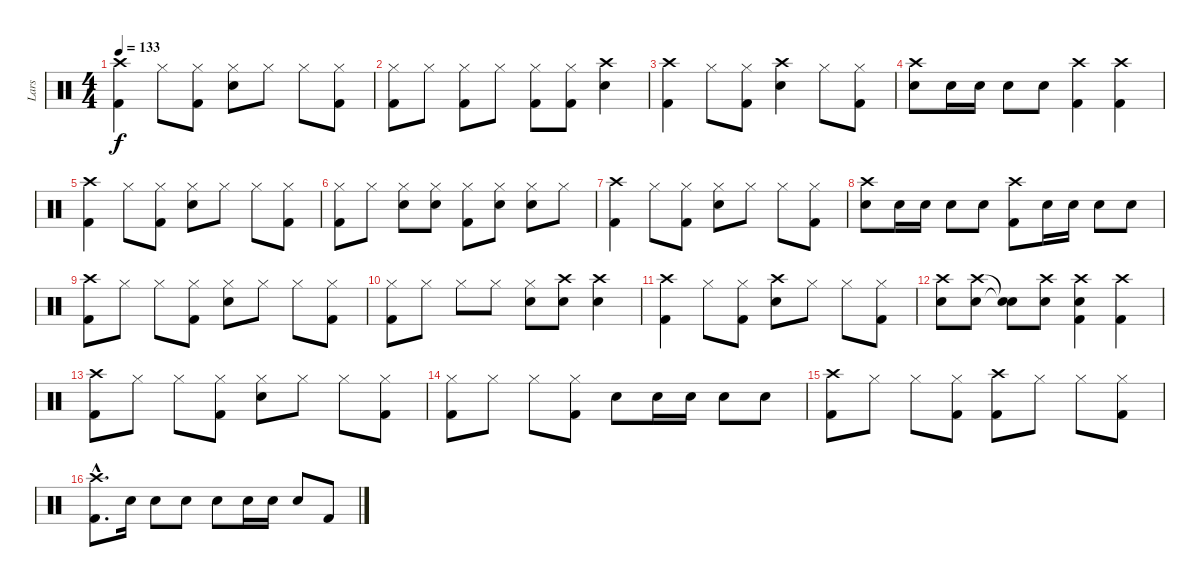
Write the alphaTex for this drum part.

\track ("Lars" "Lars") {instrument percussion}
\staff {score}
\articulation defaults
\ts (4 4)
\tempo 133
\clef neutral
\ks c
("Crash high (hit)" "Kick (hit) 2").4{dy f} "Hi-Hat (closed)".8 ("Kick (hit) 2" "Hi-Hat (closed)").8 ("Hi-Hat (closed)" "Electric Snare (hit)").8 "Hi-Hat (closed)".8 "Hi-Hat (closed)".8 ("Kick (hit) 2" "Hi-Hat (closed)").8 |
("Hi-Hat (closed)" "Kick (hit) 2").8 "Hi-Hat (closed)".8 ("Hi-Hat (closed)" "Kick (hit) 2").8 "Hi-Hat (closed)".8 ("Hi-Hat (closed)" "Kick (hit) 2").8 ("Hi-Hat (closed)" "Kick (hit) 2").8 ("Crash high (hit)" "Snare (hit) 2").4 |
("Crash high (hit)" "Kick (hit) 2").4 "Hi-Hat (closed)".8 ("Hi-Hat (closed)" "Kick (hit) 2").8 ("Crash high (hit)" "Electric Snare (hit)").4 "Hi-Hat (closed)".8 ("Hi-Hat (closed)" "Kick (hit) 2").8 |
("Crash high (hit)" "Electric Snare (hit)").8 "Electric Snare (hit)".16 "Electric Snare (hit)".16 "Electric Snare (hit)".8 "Electric Snare (hit)".8 ("Crash high (hit)" "Kick (hit) 2").4 ("Crash high (hit)" "Kick (hit) 2").4 |
("Crash high (hit)" "Kick (hit) 2").4 "Hi-Hat (closed)".8 ("Hi-Hat (closed)" "Kick (hit) 2").8 ("Hi-Hat (closed)" "Electric Snare (hit)").8 "Hi-Hat (closed)".8 "Hi-Hat (closed)".8 ("Hi-Hat (closed)" "Kick (hit) 2").8 |
("Hi-Hat (closed)" "Kick (hit) 2").8 "Hi-Hat (closed)".8 ("Hi-Hat (closed)" "Electric Snare (hit)").8 ("Hi-Hat (closed)" "Electric Snare (hit)").8 ("Hi-Hat (closed)" "Kick (hit) 2").8 ("Hi-Hat (closed)" "Electric Snare (hit)").8 ("Hi-Hat (closed)" "Electric Snare (hit)").8 "Hi-Hat (closed)".8 |
("Crash high (hit)" "Kick (hit) 2").4 "Hi-Hat (closed)".8 ("Kick (hit) 2" "Hi-Hat (closed)").8 ("Hi-Hat (closed)" "Electric Snare (hit)").8 "Hi-Hat (closed)".8 "Hi-Hat (closed)".8 ("Kick (hit) 2" "Hi-Hat (closed)").8 |
("Crash high (hit)" "Electric Snare (hit)").8 "Electric Snare (hit)".16 "Electric Snare (hit)".16 "Electric Snare (hit)".8 "Electric Snare (hit)".8 ("Crash high (hit)" "Kick (hit) 2").8 "Electric Snare (hit)".16 "Electric Snare (hit)".16 "Electric Snare (hit)".8 "Electric Snare (hit)".8 |
("Crash high (hit)" "Kick (hit) 2").8 "Hi-Hat (closed)".8 "Hi-Hat (closed)".8 ("Hi-Hat (closed)" "Kick (hit) 2").8 ("Hi-Hat (closed)" "Electric Snare (hit)").8 "Hi-Hat (closed)".8 "Hi-Hat (closed)".8 ("Hi-Hat (closed)" "Kick (hit) 2").8 |
("Hi-Hat (closed)" "Kick (hit) 2").8 "Hi-Hat (closed)".8 "Hi-Hat (closed)".8 "Hi-Hat (closed)".8 ("Hi-Hat (closed)" "Electric Snare (hit)").8 ("Crash high (hit)" "Electric Snare (hit)").8 ("Crash high (hit)" "Electric Snare (hit)").4 |
("Crash high (hit)" "Kick (hit) 2").4 "Hi-Hat (closed)".8 ("Hi-Hat (closed)" "Kick (hit) 2").8 ("Crash high (hit)" "Electric Snare (hit)").8 "Hi-Hat (closed)".8 "Hi-Hat (closed)".8 ("Hi-Hat (closed)" "Kick (hit) 2").8 |
("Crash high (hit)" "Electric Snare (hit)").8 ("Crash high (hit)" "Electric Snare (hit)").8 ("Snare (hit)"{t} "Snare (hit)"{t}).8 ("Crash high (hit)" "Electric Snare (hit)").8 ("Crash high (hit)" "Electric Snare (hit)" "Kick (hit) 2").4 ("Crash high (hit)" "Kick (hit) 2").4 |
("Crash high (hit)" "Kick (hit) 2").8 "Hi-Hat (closed)".8 "Hi-Hat (closed)".8 ("Hi-Hat (closed)" "Kick (hit) 2").8 ("Hi-Hat (closed)" "Electric Snare (hit)").8 "Hi-Hat (closed)".8 "Hi-Hat (closed)".8 ("Hi-Hat (closed)" "Kick (hit) 2").8 |
("Hi-Hat (closed)" "Kick (hit) 2").8 "Hi-Hat (closed)".8 "Hi-Hat (closed)".8 ("Hi-Hat (closed)" "Kick (hit) 2").8 "Electric Snare (hit)".8 "Electric Snare (hit)".16 "Electric Snare (hit)".16 "Electric Snare (hit)".8 "Electric Snare (hit)".8 |
("Crash high (hit)" "Kick (hit) 2").8 "Hi-Hat (closed)".8 "Hi-Hat (closed)".8 ("Hi-Hat (closed)" "Kick (hit) 2").8 ("Crash high (hit)" "Kick (hit) 2").8 "Hi-Hat (closed)".8 "Hi-Hat (closed)".8 ("Hi-Hat (closed)" "Kick (hit) 2").8 |
("Crash high (hit)"{hac} "Kick (hit) 2"{hac}).8{d} "Electric Snare (hit)".16 "Electric Snare (hit)".8 "Electric Snare (hit)".8 "Electric Snare (hit)".8 "Electric Snare (hit)".16 "Electric Snare (hit)".16 "Electric Snare (hit)".8 "Kick (hit) 2".8
